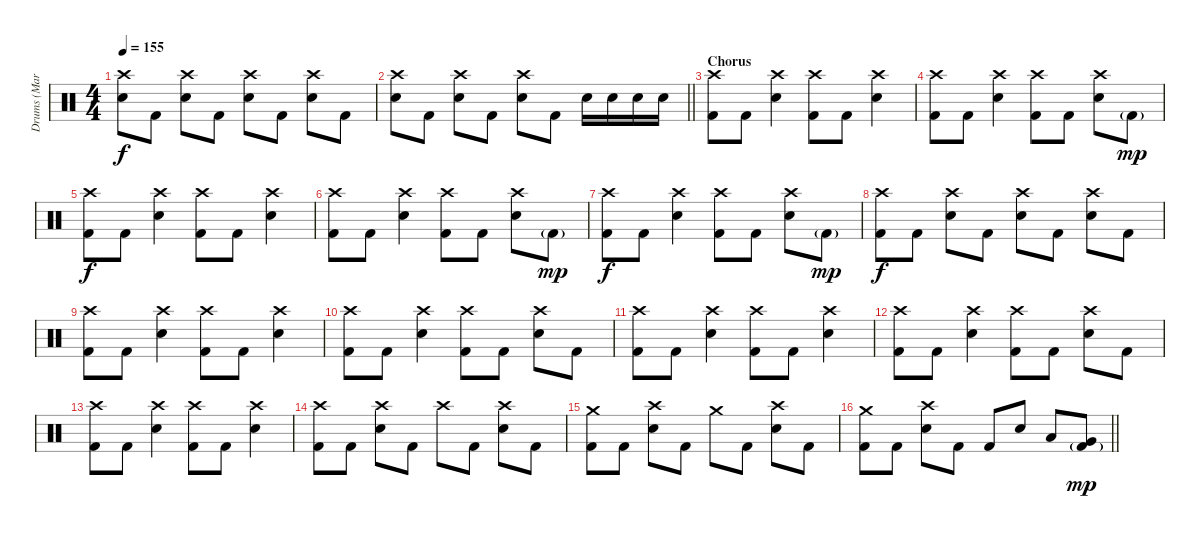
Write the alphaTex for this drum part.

\track ("Drums (Mark)" "Drums (Mar") {instrument percussion}
\staff {score}
\articulation defaults
\ts (4 4)
\tempo 155
\clef neutral
\ks c
("Crash high (hit)" "Snare (hit) 2").8{dy f} "Kick (hit) 2".8 ("Crash high (hit)" "Snare (hit) 2").8 "Kick (hit) 2".8 ("Crash high (hit)" "Snare (hit) 2").8 "Kick (hit) 2".8 ("Crash high (hit)" "Snare (hit) 2").8 "Kick (hit) 2".8 |
\barLineRight lightlight
("Crash high (hit)" "Snare (hit) 2").8 "Kick (hit) 2".8 ("Crash high (hit)" "Snare (hit) 2").8 "Kick (hit) 2".8 ("Crash high (hit)" "Snare (hit) 2").8 "Kick (hit) 2".8 "Snare (hit) 2".16 "Snare (hit) 2".16 "Snare (hit) 2".16 "Snare (hit) 2".16 |
\section ("" "Chorus")
("Crash high (hit)" "Kick (hit) 2").8 "Kick (hit) 2".8 ("Crash high (hit)" "Snare (hit) 2").4 ("Crash high (hit)" "Kick (hit) 2").8 "Kick (hit) 2".8 ("Crash high (hit)" "Snare (hit) 2").4 |
("Crash high (hit)" "Kick (hit) 2").8 "Kick (hit) 2".8 ("Crash high (hit)" "Snare (hit) 2").4 ("Crash high (hit)" "Kick (hit) 2").8 "Kick (hit) 2".8 ("Crash high (hit)" "Snare (hit) 2").8 "Kick (hit) 2"{g}.8{dy mp} |
("Crash high (hit)" "Kick (hit) 2").8{dy f} "Kick (hit) 2".8 ("Crash high (hit)" "Snare (hit) 2").4 ("Crash high (hit)" "Kick (hit) 2").8 "Kick (hit) 2".8 ("Crash high (hit)" "Snare (hit) 2").4 |
("Crash high (hit)" "Kick (hit) 2").8 "Kick (hit) 2".8 ("Crash high (hit)" "Snare (hit) 2").4 ("Crash high (hit)" "Kick (hit) 2").8 "Kick (hit) 2".8 ("Crash high (hit)" "Snare (hit) 2").8 "Kick (hit) 2"{g}.8{dy mp} |
("Crash high (hit)" "Kick (hit) 2").8{dy f} "Kick (hit) 2".8 ("Crash high (hit)" "Snare (hit) 2").4 ("Crash high (hit)" "Kick (hit) 2").8 "Kick (hit) 2".8 ("Crash high (hit)" "Snare (hit) 2").8 "Kick (hit) 2"{g}.8{dy mp} |
("Crash high (hit)" "Kick (hit) 2").8{dy f} "Kick (hit) 2".8 ("Crash high (hit)" "Snare (hit) 2").8 "Kick (hit) 2".8 ("Crash high (hit)" "Snare (hit) 2").8 "Kick (hit) 2".8 ("Crash high (hit)" "Snare (hit) 2").8 "Kick (hit) 2".8 |
("Crash high (hit)" "Kick (hit) 2").8 "Kick (hit) 2".8 ("Crash high (hit)" "Snare (hit) 2").4 ("Crash high (hit)" "Kick (hit) 2").8 "Kick (hit) 2".8 ("Crash high (hit)" "Snare (hit) 2").4 |
("Crash high (hit)" "Kick (hit) 2").8 "Kick (hit) 2".8 ("Crash high (hit)" "Snare (hit) 2").4 ("Crash high (hit)" "Kick (hit) 2").8 "Kick (hit) 2".8 ("Crash high (hit)" "Snare (hit) 2").8 "Kick (hit) 2".8 |
("Crash high (hit)" "Kick (hit) 2").8 "Kick (hit) 2".8 ("Crash high (hit)" "Snare (hit) 2").4 ("Crash high (hit)" "Kick (hit) 2").8 "Kick (hit) 2".8 ("Crash high (hit)" "Snare (hit) 2").4 |
("Crash high (hit)" "Kick (hit) 2").8 "Kick (hit) 2".8 ("Crash high (hit)" "Snare (hit) 2").4 ("Crash high (hit)" "Kick (hit) 2").8 "Kick (hit) 2".8 ("Crash high (hit)" "Snare (hit) 2").8 "Kick (hit) 2".8 |
("Crash high (hit)" "Kick (hit) 2").8 "Kick (hit) 2".8 ("Crash high (hit)" "Snare (hit) 2").4 ("Crash high (hit)" "Kick (hit) 2").8 "Kick (hit) 2".8 ("Crash high (hit)" "Snare (hit) 2").4 |
("Crash high (hit)" "Kick (hit) 2").8 "Kick (hit) 2".8 ("Crash high (hit)" "Snare (hit) 2").8 "Kick (hit) 2".8 "Crash high (hit)".8 "Kick (hit) 2".8 ("Crash high (hit)" "Snare (hit) 2").8 "Kick (hit) 2".8 |
("Crash medium (hit)" "Kick (hit) 2").8 "Kick (hit) 2".8 ("Crash high (hit)" "Snare (hit) 2").8 "Kick (hit) 2".8 "Crash medium (hit)".8 "Kick (hit) 2".8 ("Crash high (hit)" "Snare (hit) 2").8 "Kick (hit) 2".8 |
\barLineRight lightlight
("Crash medium (hit)" "Kick (hit) 2").8 "Kick (hit) 2".8 ("Crash high (hit)" "Snare (hit) 2").8 "Kick (hit) 2".8 "Kick (hit) 2".8 "Snare (hit) 2".8 "Low Tom (hit)".8 ("Very Low Tom (hit)" "Kick (hit) 2"{g}).8{dy mp}
